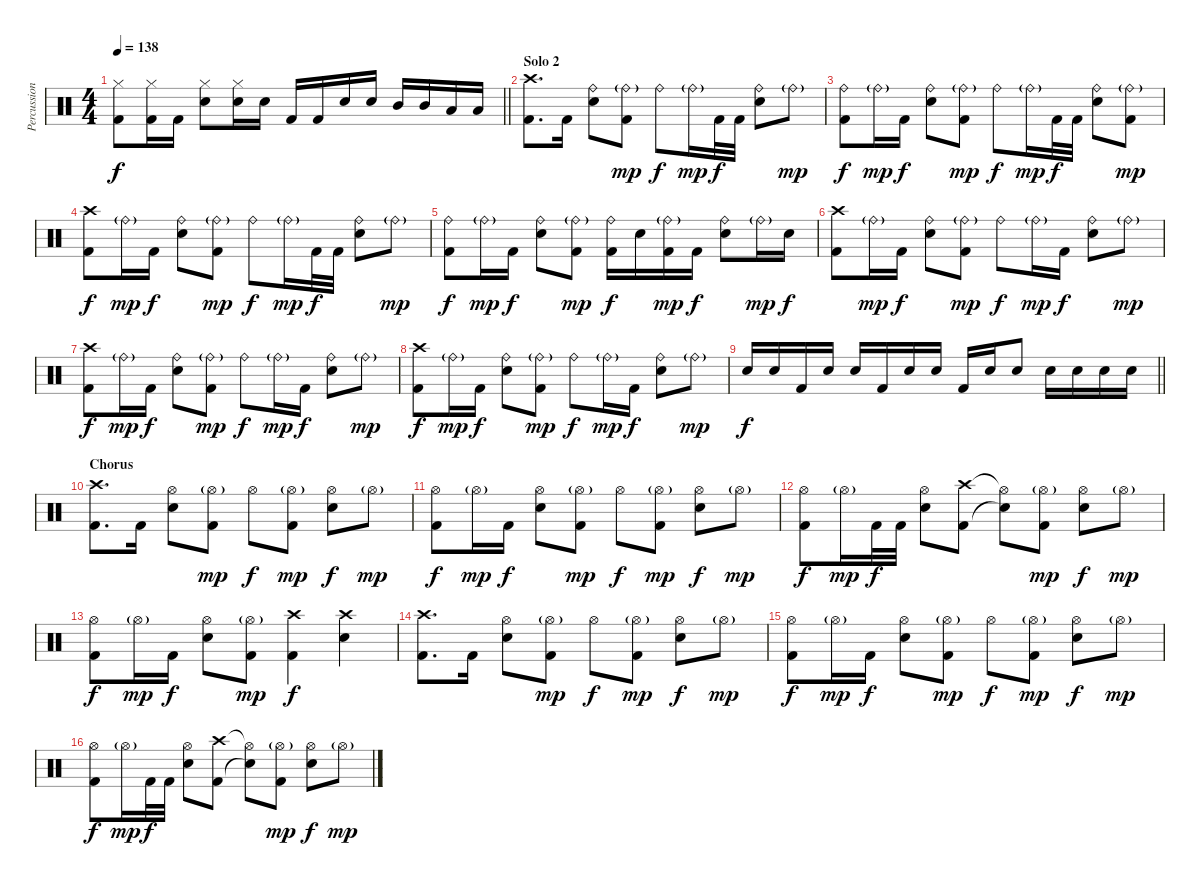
\track ("Percussion" "Percussion") {instrument percussion}
\staff {score}
\articulation defaults
\ts (4 4)
\tempo 138
\clef neutral
\barLineRight lightlight
\ks c
("Hi-Hat (closed)" "Kick (hit) 2").8{dy f} ("Hi-Hat (closed)" "Kick (hit) 2").16 "Kick (hit) 2".16 ("Hi-Hat (closed)" "Snare (hit) 2").8 ("Hi-Hat (closed)" "Snare (hit) 2").16 "Snare (hit) 2".16 "Kick (hit) 2".16 "Kick (hit) 2".16 "Snare (hit) 2".16 "Snare (hit) 2".16 "Mid Tom (hit)".16 "Mid Tom (hit)".16 "Low Tom (hit)".16 "Low Tom (hit)".16 |
\section ("" "Solo 2")
("Crash high (hit)" "Kick (hit) 2").8{d} "Kick (hit) 2".16 ("Ride (bell)" "Snare (hit) 2").8 ("Ride (bell)"{g} "Kick (hit) 2").8{dy mp} "Ride (bell)".8{dy f} "Ride (bell)"{g}.16{dy mp} "Kick (hit) 2".32{dy f} "Kick (hit) 2".32 ("Ride (bell)" "Snare (hit) 2").8 "Ride (bell)"{g}.8{dy mp} |
("Ride (bell)" "Kick (hit) 2").8{dy f} "Ride (bell)"{g}.16{dy mp} "Kick (hit) 2".16{dy f} ("Ride (bell)" "Snare (hit) 2").8 ("Ride (bell)"{g} "Kick (hit) 2").8{dy mp} "Ride (bell)".8{dy f} "Ride (bell)"{g}.16{dy mp} "Kick (hit) 2".32{dy f} "Kick (hit) 2".32 ("Ride (bell)" "Snare (hit) 2").8 ("Ride (bell)"{g} "Kick (hit) 2").8{dy mp} |
("Crash high (hit)" "Kick (hit) 2").8{dy f} "Ride (bell)"{g}.16{dy mp} "Kick (hit) 2".16{dy f} ("Ride (bell)" "Snare (hit) 2").8 ("Ride (bell)"{g} "Kick (hit) 2").8{dy mp} "Ride (bell)".8{dy f} "Ride (bell)"{g}.16{dy mp} "Kick (hit) 2".32{dy f} "Kick (hit) 2".32 ("Ride (bell)" "Snare (hit) 2").8 "Ride (bell)"{g}.8{dy mp} |
("Ride (bell)" "Kick (hit) 2").8{dy f} "Ride (bell)"{g}.16{dy mp} "Kick (hit) 2".16{dy f} ("Ride (bell)" "Snare (hit) 2").8 ("Ride (bell)"{g} "Kick (hit) 2").8{dy mp} ("Ride (bell)" "Kick (hit) 2").16{dy f} "Snare (hit) 2".16 ("Ride (bell)"{g} "Kick (hit) 2").16{dy mp} "Kick (hit) 2".16{dy f} ("Ride (bell)" "Snare (hit) 2").8 "Ride (bell)"{g}.16{dy mp} "Snare (hit) 2".16{dy f} |
("Crash high (hit)" "Kick (hit) 2").8 "Ride (bell)"{g}.16{dy mp} "Kick (hit) 2".16{dy f} ("Ride (bell)" "Snare (hit) 2").8 ("Ride (bell)"{g} "Kick (hit) 2").8{dy mp} "Ride (bell)".8{dy f} "Ride (bell)"{g}.16{dy mp} "Kick (hit) 2".16{dy f} ("Ride (bell)" "Snare (hit) 2").8 "Ride (bell)"{g}.8{dy mp} |
("Crash high (hit)" "Kick (hit) 2").8{dy f} "Ride (bell)"{g}.16{dy mp} "Kick (hit) 2".16{dy f} ("Ride (bell)" "Snare (hit) 2").8 ("Ride (bell)"{g} "Kick (hit) 2").8{dy mp} "Ride (bell)".8{dy f} "Ride (bell)"{g}.16{dy mp} "Kick (hit) 2".16{dy f} ("Ride (bell)" "Snare (hit) 2").8 "Ride (bell)"{g}.8{dy mp} |
("Crash high (hit)" "Kick (hit) 2").8{dy f} "Ride (bell)"{g}.16{dy mp} "Kick (hit) 2".16{dy f} ("Ride (bell)" "Snare (hit) 2").8 ("Ride (bell)"{g} "Kick (hit) 2").8{dy mp} "Ride (bell)".8{dy f} "Ride (bell)"{g}.16{dy mp} "Kick (hit) 2".16{dy f} ("Ride (bell)" "Snare (hit) 2").8 "Ride (bell)"{g}.8{dy mp} |
\barLineRight lightlight "Snare (hit) 2".16{dy f} "Snare (hit) 2".16 "Kick (hit) 2".16 "Snare (hit) 2".16 "Snare (hit) 2".16 "Kick (hit) 2".16 "Snare (hit) 2".16 "Snare (hit) 2".16 "Kick (hit) 2".16 "Snare (hit) 2".16 "Snare (hit) 2".8 "Snare (hit) 2".16 "Snare (hit) 2".16 "Snare (hit) 2".16 "Snare (hit) 2".16
|
\section ("" "Chorus")
("Crash high (hit)" "Kick (hit) 2").8{d} "Kick (hit) 2".16 ("Hi-Hat (open)" "Snare (hit) 2").8 ("Hi-Hat (open)"{g} "Kick (hit) 2").8{dy mp} "Hi-Hat (open)".8{dy f} ("Hi-Hat (open)"{g} "Kick (hit) 2").8{dy mp} ("Hi-Hat (open)" "Snare (hit) 2").8{dy f} "Hi-Hat (open)"{g}.8{dy mp} |
("Hi-Hat (open)" "Kick (hit) 2").8{dy f} "Hi-Hat (open)"{g}.16{dy mp} "Kick (hit) 2".16{dy f} ("Hi-Hat (open)" "Snare (hit) 2").8 ("Hi-Hat (open)"{g} "Kick (hit) 2").8{dy mp} "Hi-Hat (open)".8{dy f} ("Hi-Hat (open)"{g} "Kick (hit) 2").8{dy mp} ("Hi-Hat (open)" "Snare (hit) 2").8{dy f} "Hi-Hat (open)"{g}.8{dy mp} |
("Hi-Hat (open)" "Kick (hit) 2").8{dy f} "Hi-Hat (open)"{g}.16{dy mp} "Kick (hit) 2".32{dy f} "Kick (hit) 2".32 ("Hi-Hat (open)" "Snare (hit) 2").8 ("Crash high (hit)" "Kick (hit) 2").8 ("Hi-Hat (open)"{t} "Snare (hit)"{t}).8 ("Hi-Hat (open)"{g} "Kick (hit) 2").8{dy mp} ("Hi-Hat (open)" "Snare (hit) 2").8{dy f} "Hi-Hat (open)"{g}.8{dy mp} |
("Hi-Hat (open)" "Kick (hit) 2").8{dy f} "Hi-Hat (open)"{g}.16{dy mp} "Kick (hit) 2".16{dy f} ("Hi-Hat (open)" "Snare (hit) 2").8 ("Hi-Hat (open)"{g} "Kick (hit) 2").8{dy mp} ("Crash high (hit)" "Kick (hit) 2").4{dy f} ("Crash high (hit)" "Snare (hit) 2").4 |
("Crash high (hit)" "Kick (hit) 2").8{d} "Kick (hit) 2".16 ("Hi-Hat (open)" "Snare (hit) 2").8 ("Hi-Hat (open)"{g} "Kick (hit) 2").8{dy mp} "Hi-Hat (open)".8{dy f} ("Hi-Hat (open)"{g} "Kick (hit) 2").8{dy mp} ("Hi-Hat (open)" "Snare (hit) 2").8{dy f} "Hi-Hat (open)"{g}.8{dy mp} |
("Hi-Hat (open)" "Kick (hit) 2").8{dy f} "Hi-Hat (open)"{g}.16{dy mp} "Kick (hit) 2".16{dy f} ("Hi-Hat (open)" "Snare (hit) 2").8 ("Hi-Hat (open)"{g} "Kick (hit) 2").8{dy mp} "Hi-Hat (open)".8{dy f} ("Hi-Hat (open)"{g} "Kick (hit) 2").8{dy mp} ("Hi-Hat (open)" "Snare (hit) 2").8{dy f} "Hi-Hat (open)"{g}.8{dy mp} |
("Hi-Hat (open)" "Kick (hit) 2").8{dy f} "Hi-Hat (open)"{g}.16{dy mp} "Kick (hit) 2".32{dy f} "Kick (hit) 2".32 ("Hi-Hat (open)" "Snare (hit) 2").8 ("Crash high (hit)" "Kick (hit) 2").8 ("Hi-Hat (open)"{t} "Snare (hit)"{t}).8 ("Hi-Hat (open)"{g} "Kick (hit) 2").8{dy mp} ("Hi-Hat (open)" "Snare (hit) 2").8{dy f} "Hi-Hat (open)"{g}.8{dy mp}
